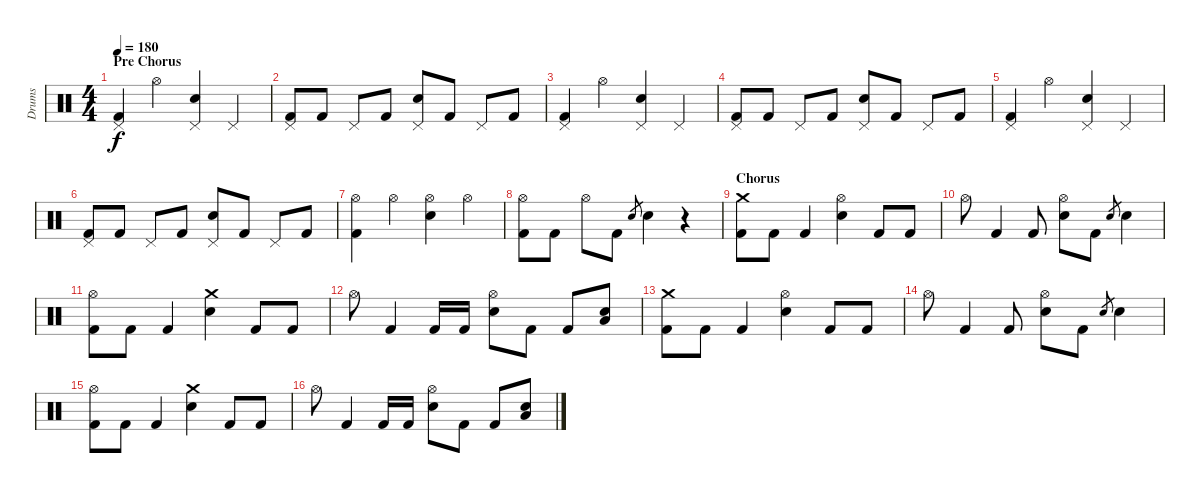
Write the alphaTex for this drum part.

\track ("Drums" "Drums") {instrument percussion}
\staff {score}
\articulation defaults
\ts (4 4)
\section ("" "Pre Chorus")
\tempo 180
\clef neutral
\ks c
("Pedal Hi-Hat (hit)" "Kick (hit) 2").4{dy f} "Hi-Hat (open)".4 ("Pedal Hi-Hat (hit)" "Electric Snare (hit)").4 "Pedal Hi-Hat (hit)".4 |
("Pedal Hi-Hat (hit)" "Kick (hit) 2").8 "Kick (hit) 2".8 "Pedal Hi-Hat (hit)".8 "Kick (hit) 2".8 ("Pedal Hi-Hat (hit)" "Electric Snare (hit)").8 "Kick (hit) 2".8 "Pedal Hi-Hat (hit)".8 "Kick (hit) 2".8 |
("Pedal Hi-Hat (hit)" "Kick (hit) 2").4 "Hi-Hat (open)".4 ("Pedal Hi-Hat (hit)" "Electric Snare (hit)").4 "Pedal Hi-Hat (hit)".4 |
("Pedal Hi-Hat (hit)" "Kick (hit) 2").8 "Kick (hit) 2".8 "Pedal Hi-Hat (hit)".8 "Kick (hit) 2".8 ("Pedal Hi-Hat (hit)" "Electric Snare (hit)").8 "Kick (hit) 2".8 "Pedal Hi-Hat (hit)".8 "Kick (hit) 2".8 |
("Pedal Hi-Hat (hit)" "Kick (hit) 2").4 "Hi-Hat (open)".4 ("Pedal Hi-Hat (hit)" "Electric Snare (hit)").4 "Pedal Hi-Hat (hit)".4 |
("Pedal Hi-Hat (hit)" "Kick (hit) 2").8 "Kick (hit) 2".8 "Pedal Hi-Hat (hit)".8 "Kick (hit) 2".8 ("Pedal Hi-Hat (hit)" "Electric Snare (hit)").8 "Kick (hit) 2".8 "Pedal Hi-Hat (hit)".8 "Kick (hit) 2".8 |
("Hi-Hat (open)" "Kick (hit) 2").4 "Hi-Hat (open)".4 ("Hi-Hat (open)" "Electric Snare (hit)").4 "Hi-Hat (open)".4 |
("Hi-Hat (open)" "Kick (hit) 2").8 "Kick (hit) 2".8 "Hi-Hat (open)".8 "Kick (hit) 2".8 "Electric Snare (hit)".8{gr} "Electric Snare (hit)".4 r.4 |
\section ("" "Chorus")
("Crash medium (hit)" "Kick (hit) 2").8 "Kick (hit) 2".8 "Kick (hit) 2".4 ("Hi-Hat (open)" "Electric Snare (hit)").4 "Kick (hit) 2".8 "Kick (hit) 2".8 |
"Hi-Hat (open)".8 "Kick (hit) 2".4 "Kick (hit) 2".8 ("Hi-Hat (open)" "Electric Snare (hit)").8 "Kick (hit) 2".8 "Electric Snare (hit)".8{gr} "Electric Snare (hit)".4 |
("Hi-Hat (open)" "Kick (hit) 2").8 "Kick (hit) 2".8 "Kick (hit) 2".4 ("Crash medium (hit)" "Electric Snare (hit)").4 "Kick (hit) 2".8 "Kick (hit) 2".8 |
"Hi-Hat (open)".8 "Kick (hit) 2".4 "Kick (hit) 2".16 "Kick (hit) 2".16 ("Hi-Hat (open)" "Electric Snare (hit)").8 "Kick (hit) 2".8 "Kick (hit) 2".8 ("Electric Snare (hit)" "Low Tom (hit)").8 |
("Crash medium (hit)" "Kick (hit) 2").8 "Kick (hit) 2".8 "Kick (hit) 2".4 ("Hi-Hat (open)" "Electric Snare (hit)").4 "Kick (hit) 2".8 "Kick (hit) 2".8 |
"Hi-Hat (open)".8 "Kick (hit) 2".4 "Kick (hit) 2".8 ("Hi-Hat (open)" "Electric Snare (hit)").8 "Kick (hit) 2".8 "Electric Snare (hit)".8{gr} "Electric Snare (hit)".4 |
("Hi-Hat (open)" "Kick (hit) 2").8 "Kick (hit) 2".8 "Kick (hit) 2".4 ("Crash medium (hit)" "Electric Snare (hit)").4 "Kick (hit) 2".8 "Kick (hit) 2".8 |
"Hi-Hat (open)".8 "Kick (hit) 2".4 "Kick (hit) 2".16 "Kick (hit) 2".16 ("Hi-Hat (open)" "Electric Snare (hit)").8 "Kick (hit) 2".8 "Kick (hit) 2".8 ("Electric Snare (hit)" "Low Tom (hit)").8
